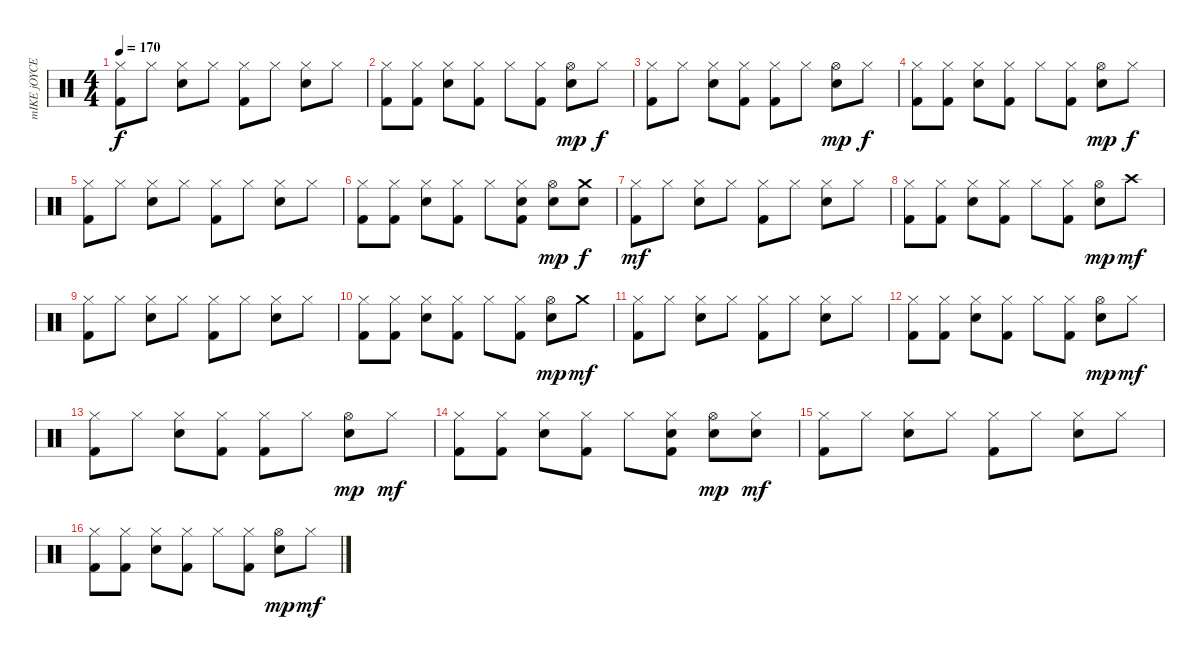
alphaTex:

\track ("mIKE jOYCE" "mIKE jOYCE") {instrument percussion}
\staff {score}
\articulation defaults
\ts (4 4)
\tempo 170
\clef neutral
\ks c
("Hi-Hat (closed)" "Kick (hit) 2").8{dy f} "Hi-Hat (closed)".8 ("Hi-Hat (closed)" "Electric Snare (hit)").8 "Hi-Hat (closed)".8 ("Hi-Hat (closed)" "Kick (hit) 2").8 "Hi-Hat (closed)".8 ("Hi-Hat (closed)" "Electric Snare (hit)").8 "Hi-Hat (closed)".8 |
("Hi-Hat (closed)" "Kick (hit) 2").8 ("Hi-Hat (closed)" "Kick (hit) 2").8 ("Hi-Hat (closed)" "Electric Snare (hit)").8 ("Hi-Hat (closed)" "Kick (hit) 2").8 "Hi-Hat (closed)".8 ("Hi-Hat (closed)" "Kick (hit) 2").8 ("Hi-Hat (open)" "Electric Snare (hit)").8{dy mp} "Hi-Hat (closed)".8{dy f} |
("Hi-Hat (closed)" "Kick (hit) 2").8 "Hi-Hat (closed)".8 ("Hi-Hat (closed)" "Electric Snare (hit)").8 ("Hi-Hat (closed)" "Kick (hit) 2").8 ("Hi-Hat (closed)" "Kick (hit) 2").8 "Hi-Hat (closed)".8 ("Hi-Hat (open)" "Electric Snare (hit)").8{dy mp} "Hi-Hat (closed)".8{dy f} |
("Hi-Hat (closed)" "Kick (hit) 2").8 ("Hi-Hat (closed)" "Kick (hit) 2").8 ("Hi-Hat (closed)" "Electric Snare (hit)").8 ("Hi-Hat (closed)" "Kick (hit) 2").8 "Hi-Hat (closed)".8 ("Hi-Hat (closed)" "Kick (hit) 2").8 ("Hi-Hat (open)" "Electric Snare (hit)").8{dy mp} "Hi-Hat (closed)".8{dy f} |
("Hi-Hat (closed)" "Kick (hit) 2").8 "Hi-Hat (closed)".8 ("Hi-Hat (closed)" "Electric Snare (hit)").8 "Hi-Hat (closed)".8 ("Hi-Hat (closed)" "Kick (hit) 2").8 "Hi-Hat (closed)".8 ("Hi-Hat (closed)" "Electric Snare (hit)").8 "Hi-Hat (closed)".8 |
("Hi-Hat (closed)" "Kick (hit) 2").8 ("Hi-Hat (closed)" "Kick (hit) 2").8 ("Hi-Hat (closed)" "Electric Snare (hit)").8 ("Hi-Hat (closed)" "Kick (hit) 2").8 "Hi-Hat (closed)".8 ("Hi-Hat (closed)" "Electric Snare (hit)" "Kick (hit) 2").8 ("Hi-Hat (open)" "Electric Snare (hit)").8{dy mp} ("Crash medium (hit)" "Electric Snare (hit)").8{dy f} |
("Hi-Hat (closed)" "Kick (hit) 2").8{dy mf} "Hi-Hat (closed)".8 ("Hi-Hat (closed)" "Electric Snare (hit)").8 "Hi-Hat (closed)".8 ("Hi-Hat (closed)" "Kick (hit) 2").8 "Hi-Hat (closed)".8 ("Hi-Hat (closed)" "Electric Snare (hit)").8 "Hi-Hat (closed)".8 |
("Hi-Hat (closed)" "Kick (hit) 2").8 ("Hi-Hat (closed)" "Kick (hit) 2").8 ("Hi-Hat (closed)" "Electric Snare (hit)").8 ("Hi-Hat (closed)" "Kick (hit) 2").8 "Hi-Hat (closed)".8 ("Hi-Hat (closed)" "Kick (hit) 2").8 ("Hi-Hat (open)" "Electric Snare (hit)").8{dy mp} "Crash high (hit)".8{dy mf} |
("Hi-Hat (closed)" "Kick (hit) 2").8 "Hi-Hat (closed)".8 ("Hi-Hat (closed)" "Electric Snare (hit)").8 "Hi-Hat (closed)".8 ("Hi-Hat (closed)" "Kick (hit) 2").8 "Hi-Hat (closed)".8 ("Hi-Hat (closed)" "Electric Snare (hit)").8 "Hi-Hat (closed)".8 |
("Hi-Hat (closed)" "Kick (hit) 2").8 ("Hi-Hat (closed)" "Kick (hit) 2").8 ("Hi-Hat (closed)" "Electric Snare (hit)").8 ("Hi-Hat (closed)" "Kick (hit) 2").8 "Hi-Hat (closed)".8 ("Hi-Hat (closed)" "Kick (hit) 2").8 ("Hi-Hat (open)" "Electric Snare (hit)").8{dy mp} "Crash medium (hit)".8{dy mf} |
("Hi-Hat (closed)" "Kick (hit) 2").8 "Hi-Hat (closed)".8 ("Hi-Hat (closed)" "Electric Snare (hit)").8 "Hi-Hat (closed)".8 ("Hi-Hat (closed)" "Kick (hit) 2").8 "Hi-Hat (closed)".8 ("Hi-Hat (closed)" "Electric Snare (hit)").8 "Hi-Hat (closed)".8 |
("Hi-Hat (closed)" "Kick (hit) 2").8 ("Hi-Hat (closed)" "Kick (hit) 2").8 ("Hi-Hat (closed)" "Electric Snare (hit)").8 ("Hi-Hat (closed)" "Kick (hit) 2").8 "Hi-Hat (closed)".8 ("Hi-Hat (closed)" "Kick (hit) 2").8 ("Hi-Hat (open)" "Electric Snare (hit)").8{dy mp} "Hi-Hat (closed)".8{dy mf} |
("Hi-Hat (closed)" "Kick (hit) 2").8 "Hi-Hat (closed)".8 ("Hi-Hat (closed)" "Electric Snare (hit)").8 ("Hi-Hat (closed)" "Kick (hit) 2").8 ("Hi-Hat (closed)" "Kick (hit) 2").8 "Hi-Hat (closed)".8 ("Hi-Hat (open)" "Electric Snare (hit)").8{dy mp} "Hi-Hat (closed)".8{dy mf} |
("Hi-Hat (closed)" "Kick (hit) 2").8 ("Hi-Hat (closed)" "Kick (hit) 2").8 ("Hi-Hat (closed)" "Electric Snare (hit)").8 ("Hi-Hat (closed)" "Kick (hit) 2").8 "Hi-Hat (closed)".8 ("Hi-Hat (closed)" "Electric Snare (hit)" "Kick (hit) 2").8 ("Hi-Hat (open)" "Electric Snare (hit)").8{dy mp} ("Hi-Hat (closed)" "Electric Snare (hit)").8{dy mf} |
("Hi-Hat (closed)" "Kick (hit) 2").8 "Hi-Hat (closed)".8 ("Hi-Hat (closed)" "Electric Snare (hit)").8 "Hi-Hat (closed)".8 ("Hi-Hat (closed)" "Kick (hit) 2").8 "Hi-Hat (closed)".8 ("Hi-Hat (closed)" "Electric Snare (hit)").8 "Hi-Hat (closed)".8 |
("Hi-Hat (closed)" "Kick (hit) 2").8 ("Hi-Hat (closed)" "Kick (hit) 2").8 ("Hi-Hat (closed)" "Electric Snare (hit)").8 ("Hi-Hat (closed)" "Kick (hit) 2").8 "Hi-Hat (closed)".8 ("Hi-Hat (closed)" "Kick (hit) 2").8 ("Hi-Hat (open)" "Electric Snare (hit)").8{dy mp} "Hi-Hat (closed)".8{dy mf}
